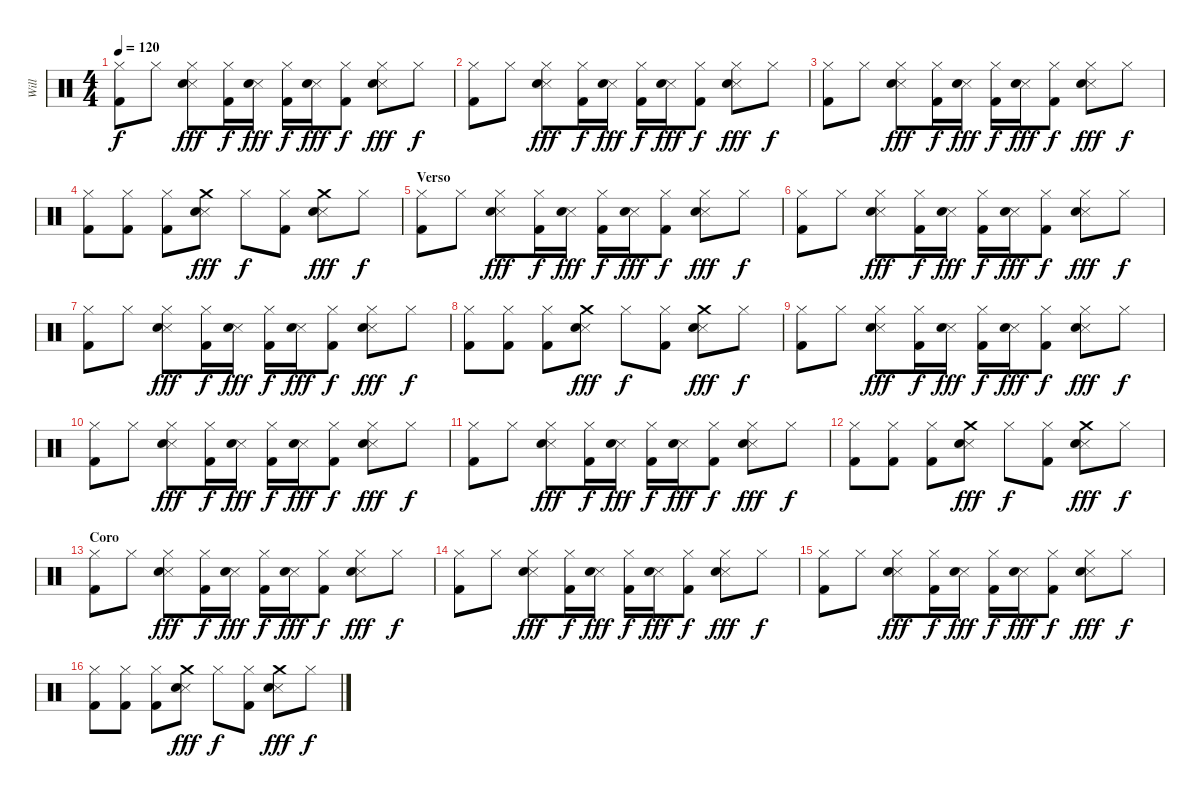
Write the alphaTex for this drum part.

\track ("Will " "Will ") {instrument percussion}
\staff {score}
\articulation defaults
\ts (4 4)
\tempo 120
\clef neutral
\ks c
("Hi-Hat (closed)" "Kick (hit) 2").8{dy f} "Hi-Hat (closed)".8 ("Hi-Hat (closed)" "Snare (side stick) 3" "Electric Snare (hit)").8{dy fff} ("Hi-Hat (closed)" "Kick (hit) 2").16{dy f} ("Snare (side stick) 3" "Electric Snare (hit)").16{dy fff} ("Hi-Hat (closed)" "Kick (hit) 2").16{dy f} ("Snare (side stick) 3" "Electric Snare (hit)").16{dy fff} ("Hi-Hat (closed)" "Kick (hit) 2").8{dy f} ("Hi-Hat (closed)" "Snare (side stick) 3" "Electric Snare (hit)").8{dy fff} "Hi-Hat (closed)".8{dy f} |
("Hi-Hat (closed)" "Kick (hit) 2").8 "Hi-Hat (closed)".8 ("Hi-Hat (closed)" "Snare (side stick) 3" "Electric Snare (hit)").8{dy fff} ("Hi-Hat (closed)" "Kick (hit) 2").16{dy f} ("Snare (side stick) 3" "Electric Snare (hit)").16{dy fff} ("Hi-Hat (closed)" "Kick (hit) 2").16{dy f} ("Snare (side stick) 3" "Electric Snare (hit)").16{dy fff} ("Hi-Hat (closed)" "Kick (hit) 2").8{dy f} ("Hi-Hat (closed)" "Snare (side stick) 3" "Electric Snare (hit)").8{dy fff} "Hi-Hat (closed)".8{dy f} |
("Hi-Hat (closed)" "Kick (hit) 2").8 "Hi-Hat (closed)".8 ("Hi-Hat (closed)" "Snare (side stick) 3" "Electric Snare (hit)").8{dy fff} ("Hi-Hat (closed)" "Kick (hit) 2").16{dy f} ("Snare (side stick) 3" "Electric Snare (hit)").16{dy fff} ("Hi-Hat (closed)" "Kick (hit) 2").16{dy f} ("Snare (side stick) 3" "Electric Snare (hit)").16{dy fff} ("Hi-Hat (closed)" "Kick (hit) 2").8{dy f} ("Hi-Hat (closed)" "Snare (side stick) 3" "Electric Snare (hit)").8{dy fff} "Hi-Hat (closed)".8{dy f} |
("Hi-Hat (closed)" "Kick (hit) 2").8 ("Hi-Hat (closed)" "Kick (hit) 2").8 ("Hi-Hat (closed)" "Kick (hit) 2").8 ("Crash medium (hit)" "Snare (side stick) 3" "Electric Snare (hit)").8{dy fff} "Hi-Hat (closed)".8{dy f} ("Hi-Hat (closed)" "Kick (hit) 2").8 ("Crash medium (hit)" "Snare (side stick) 3" "Electric Snare (hit)").8{dy fff} "Hi-Hat (closed)".8{dy f} |
\section ("" "Verso")
("Hi-Hat (closed)" "Kick (hit) 2").8 "Hi-Hat (closed)".8 ("Hi-Hat (closed)" "Snare (side stick) 3" "Electric Snare (hit)").8{dy fff} ("Hi-Hat (closed)" "Kick (hit) 2").16{dy f} ("Snare (side stick) 3" "Electric Snare (hit)").16{dy fff} ("Hi-Hat (closed)" "Kick (hit) 2").16{dy f} ("Snare (side stick) 3" "Electric Snare (hit)").16{dy fff} ("Hi-Hat (closed)" "Kick (hit) 2").8{dy f} ("Hi-Hat (closed)" "Snare (side stick) 3" "Electric Snare (hit)").8{dy fff} "Hi-Hat (closed)".8{dy f} |
("Hi-Hat (closed)" "Kick (hit) 2").8 "Hi-Hat (closed)".8 ("Hi-Hat (closed)" "Snare (side stick) 3" "Electric Snare (hit)").8{dy fff} ("Hi-Hat (closed)" "Kick (hit) 2").16{dy f} ("Snare (side stick) 3" "Electric Snare (hit)").16{dy fff} ("Hi-Hat (closed)" "Kick (hit) 2").16{dy f} ("Snare (side stick) 3" "Electric Snare (hit)").16{dy fff} ("Hi-Hat (closed)" "Kick (hit) 2").8{dy f} ("Hi-Hat (closed)" "Snare (side stick) 3" "Electric Snare (hit)").8{dy fff} "Hi-Hat (closed)".8{dy f} |
("Hi-Hat (closed)" "Kick (hit) 2").8 "Hi-Hat (closed)".8 ("Hi-Hat (closed)" "Snare (side stick) 3" "Electric Snare (hit)").8{dy fff} ("Hi-Hat (closed)" "Kick (hit) 2").16{dy f} ("Snare (side stick) 3" "Electric Snare (hit)").16{dy fff} ("Hi-Hat (closed)" "Kick (hit) 2").16{dy f} ("Snare (side stick) 3" "Electric Snare (hit)").16{dy fff} ("Hi-Hat (closed)" "Kick (hit) 2").8{dy f} ("Hi-Hat (closed)" "Snare (side stick) 3" "Electric Snare (hit)").8{dy fff} "Hi-Hat (closed)".8{dy f} |
("Hi-Hat (closed)" "Kick (hit) 2").8 ("Hi-Hat (closed)" "Kick (hit) 2").8 ("Hi-Hat (closed)" "Kick (hit) 2").8 ("Crash medium (hit)" "Snare (side stick) 3" "Electric Snare (hit)").8{dy fff} "Hi-Hat (closed)".8{dy f} ("Hi-Hat (closed)" "Kick (hit) 2").8 ("Crash medium (hit)" "Snare (side stick) 3" "Electric Snare (hit)").8{dy fff} "Hi-Hat (closed)".8{dy f} |
("Hi-Hat (closed)" "Kick (hit) 2").8 "Hi-Hat (closed)".8 ("Hi-Hat (closed)" "Snare (side stick) 3" "Electric Snare (hit)").8{dy fff} ("Hi-Hat (closed)" "Kick (hit) 2").16{dy f} ("Snare (side stick) 3" "Electric Snare (hit)").16{dy fff} ("Hi-Hat (closed)" "Kick (hit) 2").16{dy f} ("Snare (side stick) 3" "Electric Snare (hit)").16{dy fff} ("Hi-Hat (closed)" "Kick (hit) 2").8{dy f} ("Hi-Hat (closed)" "Snare (side stick) 3" "Electric Snare (hit)").8{dy fff} "Hi-Hat (closed)".8{dy f} |
("Hi-Hat (closed)" "Kick (hit) 2").8 "Hi-Hat (closed)".8 ("Hi-Hat (closed)" "Snare (side stick) 3" "Electric Snare (hit)").8{dy fff} ("Hi-Hat (closed)" "Kick (hit) 2").16{dy f} ("Snare (side stick) 3" "Electric Snare (hit)").16{dy fff} ("Hi-Hat (closed)" "Kick (hit) 2").16{dy f} ("Snare (side stick) 3" "Electric Snare (hit)").16{dy fff} ("Hi-Hat (closed)" "Kick (hit) 2").8{dy f} ("Hi-Hat (closed)" "Snare (side stick) 3" "Electric Snare (hit)").8{dy fff} "Hi-Hat (closed)".8{dy f} |
("Hi-Hat (closed)" "Kick (hit) 2").8 "Hi-Hat (closed)".8 ("Hi-Hat (closed)" "Snare (side stick) 3" "Electric Snare (hit)").8{dy fff} ("Hi-Hat (closed)" "Kick (hit) 2").16{dy f} ("Snare (side stick) 3" "Electric Snare (hit)").16{dy fff} ("Hi-Hat (closed)" "Kick (hit) 2").16{dy f} ("Snare (side stick) 3" "Electric Snare (hit)").16{dy fff} ("Hi-Hat (closed)" "Kick (hit) 2").8{dy f} ("Hi-Hat (closed)" "Snare (side stick) 3" "Electric Snare (hit)").8{dy fff} "Hi-Hat (closed)".8{dy f} |
("Hi-Hat (closed)" "Kick (hit) 2").8 ("Hi-Hat (closed)" "Kick (hit) 2").8 ("Hi-Hat (closed)" "Kick (hit) 2").8 ("Crash medium (hit)" "Snare (side stick) 3" "Electric Snare (hit)").8{dy fff} "Hi-Hat (closed)".8{dy f} ("Hi-Hat (closed)" "Kick (hit) 2").8 ("Crash medium (hit)" "Snare (side stick) 3" "Electric Snare (hit)").8{dy fff} "Hi-Hat (closed)".8{dy f} |
\section ("" "Coro")
("Hi-Hat (closed)" "Kick (hit) 2").8 "Hi-Hat (closed)".8 ("Hi-Hat (closed)" "Snare (side stick) 3" "Electric Snare (hit)").8{dy fff} ("Hi-Hat (closed)" "Kick (hit) 2").16{dy f} ("Snare (side stick) 3" "Electric Snare (hit)").16{dy fff} ("Hi-Hat (closed)" "Kick (hit) 2").16{dy f} ("Snare (side stick) 3" "Electric Snare (hit)").16{dy fff} ("Hi-Hat (closed)" "Kick (hit) 2").8{dy f} ("Hi-Hat (closed)" "Snare (side stick) 3" "Electric Snare (hit)").8{dy fff} "Hi-Hat (closed)".8{dy f} |
("Hi-Hat (closed)" "Kick (hit) 2").8 "Hi-Hat (closed)".8 ("Hi-Hat (closed)" "Snare (side stick) 3" "Electric Snare (hit)").8{dy fff} ("Hi-Hat (closed)" "Kick (hit) 2").16{dy f} ("Snare (side stick) 3" "Electric Snare (hit)").16{dy fff} ("Hi-Hat (closed)" "Kick (hit) 2").16{dy f} ("Snare (side stick) 3" "Electric Snare (hit)").16{dy fff} ("Hi-Hat (closed)" "Kick (hit) 2").8{dy f} ("Hi-Hat (closed)" "Snare (side stick) 3" "Electric Snare (hit)").8{dy fff} "Hi-Hat (closed)".8{dy f} |
("Hi-Hat (closed)" "Kick (hit) 2").8 "Hi-Hat (closed)".8 ("Hi-Hat (closed)" "Snare (side stick) 3" "Electric Snare (hit)").8{dy fff} ("Hi-Hat (closed)" "Kick (hit) 2").16{dy f} ("Snare (side stick) 3" "Electric Snare (hit)").16{dy fff} ("Hi-Hat (closed)" "Kick (hit) 2").16{dy f} ("Snare (side stick) 3" "Electric Snare (hit)").16{dy fff} ("Hi-Hat (closed)" "Kick (hit) 2").8{dy f} ("Hi-Hat (closed)" "Snare (side stick) 3" "Electric Snare (hit)").8{dy fff} "Hi-Hat (closed)".8{dy f} |
("Hi-Hat (closed)" "Kick (hit) 2").8 ("Hi-Hat (closed)" "Kick (hit) 2").8 ("Hi-Hat (closed)" "Kick (hit) 2").8 ("Crash medium (hit)" "Snare (side stick) 3" "Electric Snare (hit)").8{dy fff} "Hi-Hat (closed)".8{dy f} ("Hi-Hat (closed)" "Kick (hit) 2").8 ("Crash medium (hit)" "Snare (side stick) 3" "Electric Snare (hit)").8{dy fff} "Hi-Hat (closed)".8{dy f}
